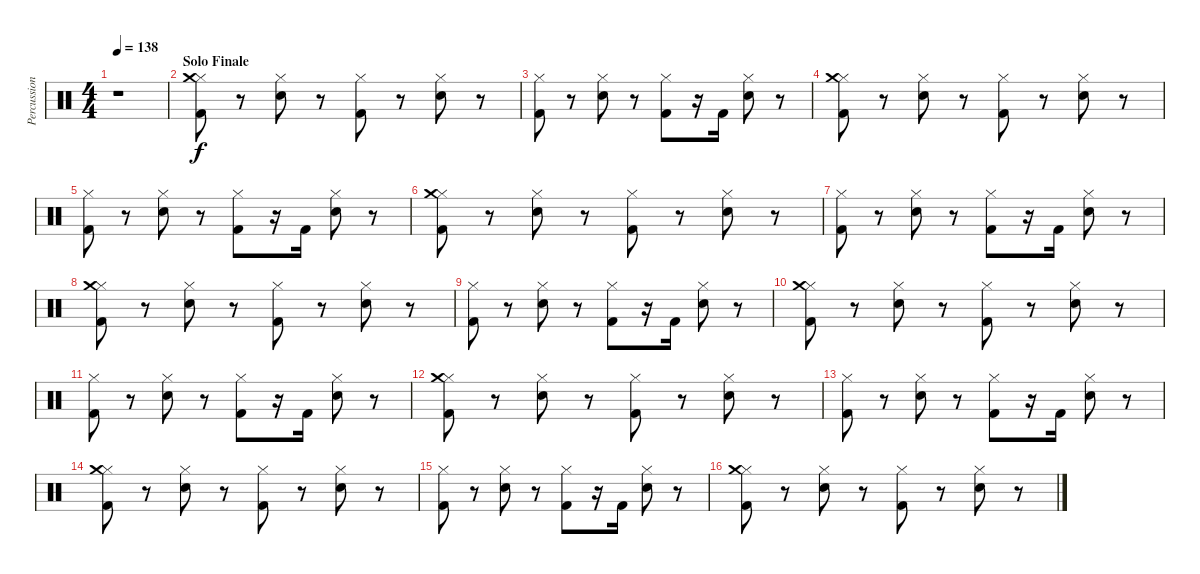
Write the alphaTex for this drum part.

\track ("Percussions" "Percussion") {instrument percussion}
\staff {score}
\articulation defaults
\ts (4 4)
\tempo 138
\clef neutral
\ks c
r.1{dy f} |
\section ("" "Solo Finale")
("Hi-Hat (closed)" "Crash medium (hit)" "Kick (hit) 2").8 r.8 ("Hi-Hat (closed)" "Electric Snare (hit)").8 r.8 ("Hi-Hat (closed)" "Kick (hit) 2").8 r.8 ("Hi-Hat (closed)" "Electric Snare (hit)").8 r.8 |
("Hi-Hat (closed)" "Kick (hit) 2").8 r.8 ("Hi-Hat (closed)" "Electric Snare (hit)").8 r.8 ("Hi-Hat (closed)" "Kick (hit) 2").8 r.16 "Kick (hit) 2".16 ("Hi-Hat (closed)" "Electric Snare (hit)").8 r.8 |
("Hi-Hat (closed)" "Crash medium (hit)" "Kick (hit) 2").8 r.8 ("Hi-Hat (closed)" "Electric Snare (hit)").8 r.8 ("Hi-Hat (closed)" "Kick (hit) 2").8 r.8 ("Hi-Hat (closed)" "Electric Snare (hit)").8 r.8 |
("Hi-Hat (closed)" "Kick (hit) 2").8 r.8 ("Hi-Hat (closed)" "Electric Snare (hit)").8 r.8 ("Hi-Hat (closed)" "Kick (hit) 2").8 r.16 "Kick (hit) 2".16 ("Hi-Hat (closed)" "Electric Snare (hit)").8 r.8 |
("Hi-Hat (closed)" "Crash medium (hit)" "Kick (hit) 2").8 r.8 ("Hi-Hat (closed)" "Electric Snare (hit)").8 r.8 ("Hi-Hat (closed)" "Kick (hit) 2").8 r.8 ("Hi-Hat (closed)" "Electric Snare (hit)").8 r.8 |
("Hi-Hat (closed)" "Kick (hit) 2").8 r.8 ("Hi-Hat (closed)" "Electric Snare (hit)").8 r.8 ("Hi-Hat (closed)" "Kick (hit) 2").8 r.16 "Kick (hit) 2".16 ("Hi-Hat (closed)" "Electric Snare (hit)").8 r.8 |
("Hi-Hat (closed)" "Crash medium (hit)" "Kick (hit) 2").8 r.8 ("Hi-Hat (closed)" "Electric Snare (hit)").8 r.8 ("Hi-Hat (closed)" "Kick (hit) 2").8 r.8 ("Hi-Hat (closed)" "Electric Snare (hit)").8 r.8 |
("Hi-Hat (closed)" "Kick (hit) 2").8 r.8 ("Hi-Hat (closed)" "Electric Snare (hit)").8 r.8 ("Hi-Hat (closed)" "Kick (hit) 2").8 r.16 "Kick (hit) 2".16 ("Hi-Hat (closed)" "Electric Snare (hit)").8 r.8 |
("Hi-Hat (closed)" "Crash medium (hit)" "Kick (hit) 2").8 r.8 ("Hi-Hat (closed)" "Electric Snare (hit)").8 r.8 ("Hi-Hat (closed)" "Kick (hit) 2").8 r.8 ("Hi-Hat (closed)" "Electric Snare (hit)").8 r.8 |
("Hi-Hat (closed)" "Kick (hit) 2").8 r.8 ("Hi-Hat (closed)" "Electric Snare (hit)").8 r.8 ("Hi-Hat (closed)" "Kick (hit) 2").8 r.16 "Kick (hit) 2".16 ("Hi-Hat (closed)" "Electric Snare (hit)").8 r.8 |
("Hi-Hat (closed)" "Crash medium (hit)" "Kick (hit) 2").8 r.8 ("Hi-Hat (closed)" "Electric Snare (hit)").8 r.8 ("Hi-Hat (closed)" "Kick (hit) 2").8 r.8 ("Hi-Hat (closed)" "Electric Snare (hit)").8 r.8 |
("Hi-Hat (closed)" "Kick (hit) 2").8 r.8 ("Hi-Hat (closed)" "Electric Snare (hit)").8 r.8 ("Hi-Hat (closed)" "Kick (hit) 2").8 r.16 "Kick (hit) 2".16 ("Hi-Hat (closed)" "Electric Snare (hit)").8 r.8 |
("Hi-Hat (closed)" "Crash medium (hit)" "Kick (hit) 2").8 r.8 ("Hi-Hat (closed)" "Electric Snare (hit)").8 r.8 ("Hi-Hat (closed)" "Kick (hit) 2").8 r.8 ("Hi-Hat (closed)" "Electric Snare (hit)").8 r.8 |
("Hi-Hat (closed)" "Kick (hit) 2").8 r.8 ("Hi-Hat (closed)" "Electric Snare (hit)").8 r.8 ("Hi-Hat (closed)" "Kick (hit) 2").8 r.16 "Kick (hit) 2".16 ("Hi-Hat (closed)" "Electric Snare (hit)").8 r.8 |
("Hi-Hat (closed)" "Crash medium (hit)" "Kick (hit) 2").8 r.8 ("Hi-Hat (closed)" "Electric Snare (hit)").8 r.8 ("Hi-Hat (closed)" "Kick (hit) 2").8 r.8 ("Hi-Hat (closed)" "Electric Snare (hit)").8 r.8
